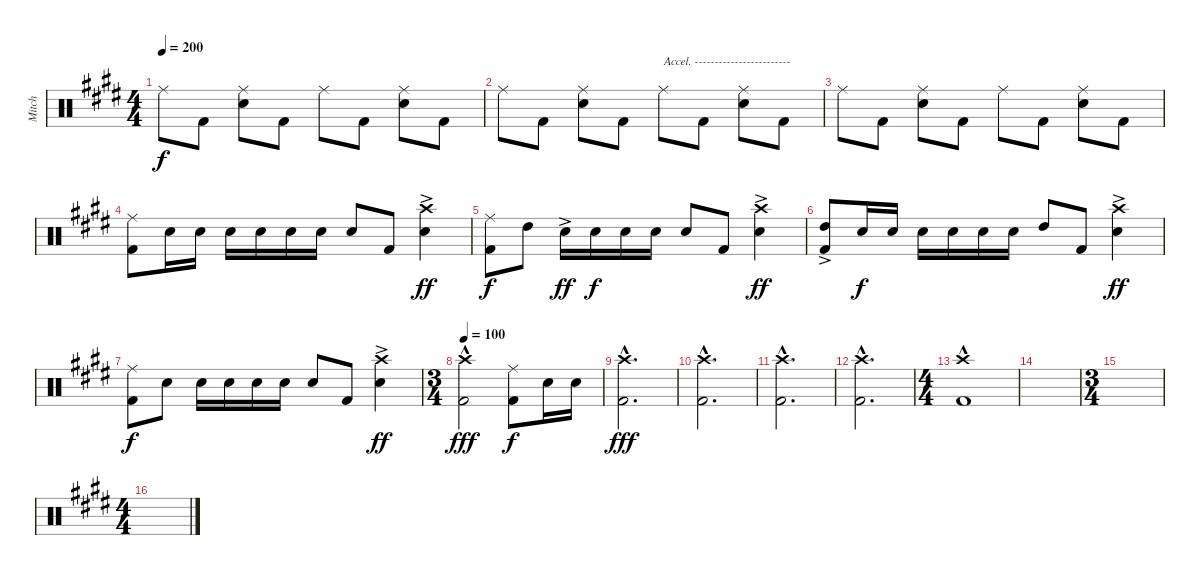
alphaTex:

\track ("Mitch" "Mitch") {instrument percussion}
\staff {score}
\articulation defaults
\ts (4 4)
\tempo 200
\clef neutral
\ks e "Ride (middle)".8{dy f} "Kick (hit) 2".8
("Ride (middle)" "Snare (hit) 2").8 "Kick (hit) 2".8 "Ride (middle)".8 "Kick (hit) 2".8 ("Ride (middle)" "Snare (hit) 2").8 "Kick (hit) 2".8 |
"Ride (middle)".8 "Kick (hit) 2".8 ("Ride (middle)" "Snare (hit) 2").8 "Kick (hit) 2".8 "Ride (middle)".8{txt "Accel. ------------------------"} "Kick (hit) 2".8 ("Ride (middle)" "Snare (hit) 2").8 "Kick (hit) 2".8 |
"Ride (middle)".8 "Kick (hit) 2".8 ("Ride (middle)" "Snare (hit) 2").8 "Kick (hit) 2".8 "Ride (middle)".8 "Kick (hit) 2".8 ("Ride (middle)" "Snare (hit) 2").8 "Kick (hit) 2".8 |
("Ride (middle)" "Kick (hit) 2").8 "Snare (hit) 2".16 "Snare (hit) 2".16 "Snare (hit) 2".16 "Snare (hit) 2".16 "Snare (hit) 2".16 "Snare (hit) 2".16 "Snare (hit) 2".8 "Kick (hit) 2".8 ("Crash high (hit)"{ac} "Snare (hit) 2").4{dy ff} |
("Ride (middle)" "Kick (hit) 2").8{dy f} "High Tom (hit)".8 "Snare (hit) 2"{ac}.16{dy ff} "Snare (hit) 2".16{dy f} "Snare (hit) 2".16 "Snare (hit) 2".16 "Snare (hit) 2".8 "Kick (hit) 2".8 ("Crash high (hit)"{ac} "Snare (hit) 2").4{dy ff} |
("High Tom (hit)"{ac} "Kick (hit) 2").8 "Snare (hit) 2".16{dy f} "Snare (hit) 2".16 "Snare (hit) 2".16 "Snare (hit) 2".16 "Snare (hit) 2".16 "Snare (hit) 2".16 "High Tom (hit)".8 "Kick (hit) 2".8 ("Crash high (hit)"{ac} "Snare (hit) 2").4{dy ff} |
("Ride (middle)" "Kick (hit) 2").8{dy f} "Snare (hit) 2".8 "Snare (hit) 2".16 "Snare (hit) 2".16 "Snare (hit) 2".16 "Snare (hit) 2".16 "Snare (hit) 2".8 "Kick (hit) 2".8 ("Crash high (hit)"{ac} "Snare (hit) 2").4{dy ff} |
\ts (3 4)
\tempo 100
("Crash high (hit)"{hac} "Kick (hit) 2").2{dy fff} ("Ride (middle)" "Kick (hit) 2").8{dy f} "Snare (hit) 2".16 "Snare (hit) 2".16 |
("Crash high (hit)"{hac} "Kick (hit) 2").2{d dy fff} |
("Crash high (hit)"{hac} "Kick (hit) 2").2{d} |
("Crash high (hit)"{hac} "Kick (hit) 2").2{d} |
("Crash high (hit)"{hac} "Kick (hit) 2").2{d} |
\ts (4 4)
("Crash high (hit)"{hac} "Kick (hit) 2").1 |
|
\ts (3 4)
|
\ts (4 4)
